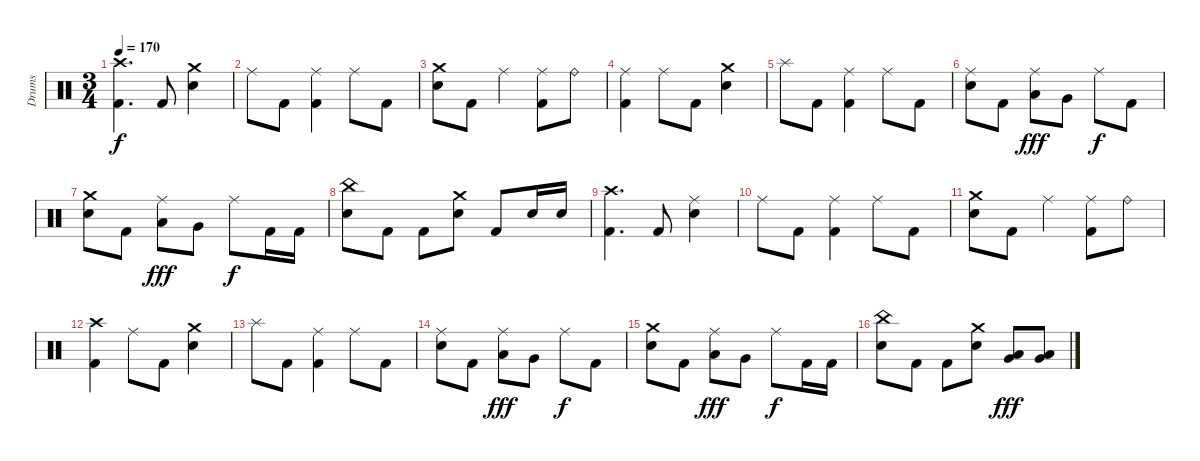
\track ("Drums" "Drums") {instrument percussion}
\staff {score}
\articulation defaults
\ts (3 4)
\tempo 170
\clef neutral
\ks c
("Crash high (hit)" "Kick (hit) 2").4{d dy f} "Kick (hit) 2".8 ("Crash medium (hit)" "Electric Snare (hit)").4 |
"Ride (middle)".8 "Kick (hit) 2".8 ("Ride (middle)" "Kick (hit) 2").4 "Ride (middle)".8 "Kick (hit) 2".8 |
("Crash medium (hit)" "Electric Snare (hit)").8 "Kick (hit) 2".8 "Ride (middle)".4 ("Ride (middle)" "Kick (hit) 2").8 "Ride (bell)".8 |
("Ride (middle)" "Kick (hit) 2").4 "Ride (middle)".8 "Kick (hit) 2".8 ("Crash medium (hit)" "Electric Snare (hit)").4 |
"Splash (hit)".8 "Kick (hit) 2".8 ("Ride (middle)" "Kick (hit) 2").4 "Ride (middle)".8 "Kick (hit) 2".8 |
("Ride (middle)" "Electric Snare (hit)").8 "Kick (hit) 2".8 ("Ride (middle)" "Low Tom (hit)").8{dy fff} "Very Low Tom (hit)".8 "Ride (middle)".8{dy f} "Kick (hit) 2".8 |
("Crash medium (hit)" "Electric Snare (hit)").8 "Kick (hit) 2".8 ("Ride (middle)" "Low Tom (hit)").8{dy fff} "Very Low Tom (hit)".8 "Ride (middle)".8{dy f} "Kick (hit) 2".16 "Kick (hit) 2".16 |
("China (hit)" "Electric Snare (hit)").8 "Kick (hit) 2".8 "Kick (hit) 2".8 ("Crash medium (hit)" "Electric Snare (hit)").8 "Kick (hit) 2".8 "Electric Snare (hit)".16 "Electric Snare (hit)".16 |
("Crash high (hit)" "Kick (hit) 2").4{d} "Kick (hit) 2".8 ("Ride (middle)" "Electric Snare (hit)").4 |
"Ride (middle)".8 "Kick (hit) 2".8 ("Ride (middle)" "Kick (hit) 2").4 "Ride (middle)".8 "Kick (hit) 2".8 |
("Crash medium (hit)" "Electric Snare (hit)").8 "Kick (hit) 2".8 "Ride (middle)".4 ("Ride (middle)" "Kick (hit) 2").8 "Ride (bell)".8 |
("Crash high (hit)" "Kick (hit) 2").4 "Ride (middle)".8 "Kick (hit) 2".8 ("Crash medium (hit)" "Electric Snare (hit)").4 |
"Splash (hit)".8 "Kick (hit) 2".8 ("Ride (middle)" "Kick (hit) 2").4 "Ride (middle)".8 "Kick (hit) 2".8 |
("Ride (middle)" "Electric Snare (hit)").8 "Kick (hit) 2".8 ("Ride (middle)" "Low Tom (hit)").8{dy fff} "Very Low Tom (hit)".8 "Ride (middle)".8{dy f} "Kick (hit) 2".8 |
("Crash medium (hit)" "Electric Snare (hit)").8 "Kick (hit) 2".8 ("Ride (middle)" "Low Tom (hit)").8{dy fff} "Very Low Tom (hit)".8 "Ride (middle)".8{dy f} "Kick (hit) 2".16 "Kick (hit) 2".16 |
("China (hit)" "Electric Snare (hit)").8 "Kick (hit) 2".8 "Kick (hit) 2".8 ("Crash medium (hit)" "Electric Snare (hit)").8 ("Low Tom (hit)" "Very Low Tom (hit)").8{dy fff} ("Low Tom (hit)" "Very Low Tom (hit)").8
